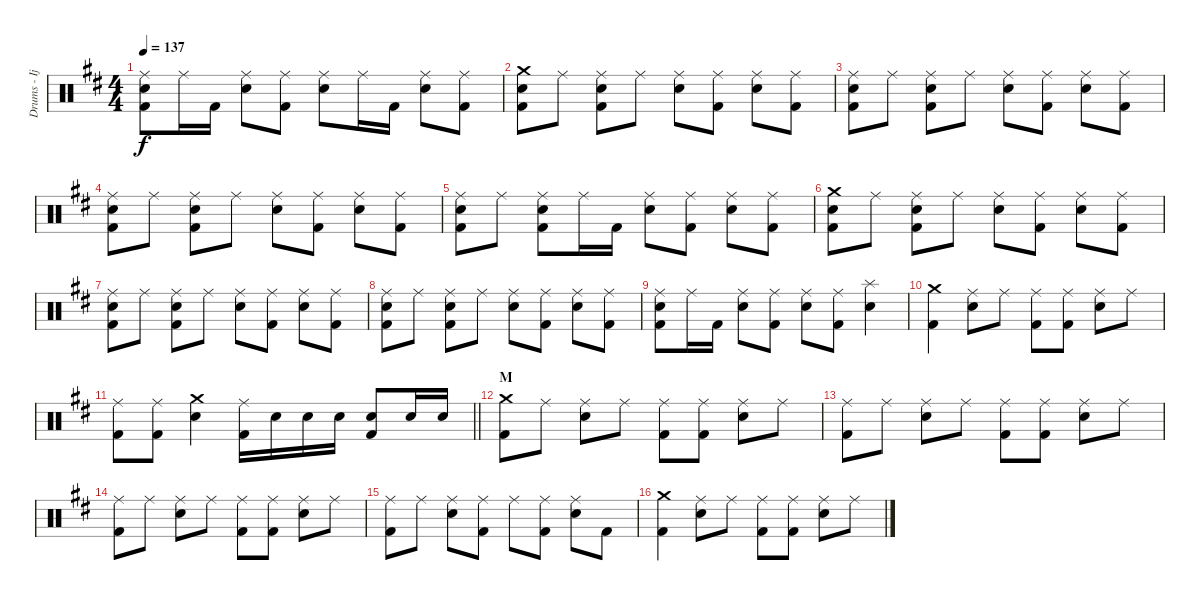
\track ("Drums - Ijichi" "Drums - Ij") {instrument percussion}
\staff {score}
\articulation defaults
\ts (4 4)
\tempo 137
\clef neutral
\ks d
("Ride (middle)" "Electric Snare (hit)" "Kick (hit) 2").8{dy f} "Ride (middle)".16 "Kick (hit) 2".16 ("Ride (middle)" "Electric Snare (hit)").8 ("Ride (middle)" "Kick (hit) 2").8 ("Ride (middle)" "Electric Snare (hit)").8 "Ride (middle)".16 "Kick (hit) 2".16 ("Ride (middle)" "Electric Snare (hit)").8 ("Ride (middle)" "Kick (hit) 2").8 |
("Crash medium (hit)" "Electric Snare (hit)" "Kick (hit) 2").8 "Ride (middle)".8 ("Ride (middle)" "Electric Snare (hit)" "Kick (hit) 2").8 "Ride (middle)".8 ("Ride (middle)" "Electric Snare (hit)").8 ("Ride (middle)" "Kick (hit) 2").8 ("Ride (middle)" "Electric Snare (hit)").8 ("Ride (middle)" "Kick (hit) 2").8 |
("Ride (middle)" "Electric Snare (hit)" "Kick (hit) 2").8 "Ride (middle)".8 ("Ride (middle)" "Electric Snare (hit)" "Kick (hit) 2").8 "Ride (middle)".8 ("Ride (middle)" "Electric Snare (hit)").8 ("Ride (middle)" "Kick (hit) 2").8 ("Ride (middle)" "Electric Snare (hit)").8 ("Ride (middle)" "Kick (hit) 2").8 |
("Ride (middle)" "Electric Snare (hit)" "Kick (hit) 2").8 "Ride (middle)".8 ("Ride (middle)" "Electric Snare (hit)" "Kick (hit) 2").8 "Ride (middle)".8 ("Ride (middle)" "Electric Snare (hit)").8 ("Ride (middle)" "Kick (hit) 2").8 ("Ride (middle)" "Electric Snare (hit)").8 ("Ride (middle)" "Kick (hit) 2").8 |
("Ride (middle)" "Electric Snare (hit)" "Kick (hit) 2").8 "Ride (middle)".8 ("Ride (middle)" "Electric Snare (hit)" "Kick (hit) 2").8 "Ride (middle)".16 "Kick (hit) 2".16 ("Ride (middle)" "Electric Snare (hit)").8 ("Ride (middle)" "Kick (hit) 2").8 ("Ride (middle)" "Electric Snare (hit)").8 ("Ride (middle)" "Kick (hit) 2").8 |
("Crash medium (hit)" "Electric Snare (hit)" "Kick (hit) 2").8 "Ride (middle)".8 ("Ride (middle)" "Electric Snare (hit)" "Kick (hit) 2").8 "Ride (middle)".8 ("Ride (middle)" "Electric Snare (hit)").8 ("Ride (middle)" "Kick (hit) 2").8 ("Ride (middle)" "Electric Snare (hit)").8 ("Ride (middle)" "Kick (hit) 2").8 |
("Ride (middle)" "Electric Snare (hit)" "Kick (hit) 2").8 "Ride (middle)".8 ("Ride (middle)" "Electric Snare (hit)" "Kick (hit) 2").8 "Ride (middle)".8 ("Ride (middle)" "Electric Snare (hit)").8 ("Ride (middle)" "Kick (hit) 2").8 ("Ride (middle)" "Electric Snare (hit)").8 ("Ride (middle)" "Kick (hit) 2").8 |
("Ride (middle)" "Electric Snare (hit)" "Kick (hit) 2").8 "Ride (middle)".8 ("Ride (middle)" "Electric Snare (hit)" "Kick (hit) 2").8 "Ride (middle)".8 ("Ride (middle)" "Electric Snare (hit)").8 ("Ride (middle)" "Kick (hit) 2").8 ("Ride (middle)" "Electric Snare (hit)").8 ("Ride (middle)" "Kick (hit) 2").8 |
("Ride (middle)" "Electric Snare (hit)" "Kick (hit) 2").8 "Ride (middle)".16 "Kick (hit) 2".16 ("Ride (middle)" "Electric Snare (hit)").8 ("Ride (middle)" "Kick (hit) 2").8 ("Ride (middle)" "Electric Snare (hit)").8 ("Ride (middle)" "Kick (hit) 2").8 ("Splash (hit)" "Electric Snare (hit)").4 |
("Crash medium (hit)" "Kick (hit) 2").4 ("Ride (middle)" "Electric Snare (hit)").8 "Ride (middle)".8 ("Ride (middle)" "Kick (hit) 2").8 ("Ride (middle)" "Kick (hit) 2").8 ("Ride (middle)" "Electric Snare (hit)").8 "Ride (middle)".8 |
\barLineRight lightlight
("Ride (middle)" "Kick (hit) 2").8 ("Ride (middle)" "Kick (hit) 2").8 ("Crash medium (hit)" "Electric Snare (hit)").4 ("Ride (middle)" "Kick (hit) 2").16 "Electric Snare (hit)".16 "Electric Snare (hit)".16 "Electric Snare (hit)".16 ("Electric Snare (hit)" "Kick (hit) 2").8 "Electric Snare (hit)".16 "Electric Snare (hit)".16 |
\section ("" "M")
("Crash medium (hit)" "Kick (hit) 2").8 "Ride (middle)".8 ("Ride (middle)" "Electric Snare (hit)").8 "Ride (middle)".8 ("Ride (middle)" "Kick (hit) 2").8 ("Ride (middle)" "Kick (hit) 2").8 ("Ride (middle)" "Electric Snare (hit)").8 "Ride (middle)".8 |
("Ride (middle)" "Kick (hit) 2").8 "Ride (middle)".8 ("Ride (middle)" "Electric Snare (hit)").8 "Ride (middle)".8 ("Ride (middle)" "Kick (hit) 2").8 ("Ride (middle)" "Kick (hit) 2").8 ("Ride (middle)" "Electric Snare (hit)").8 "Ride (middle)".8 |
("Ride (middle)" "Kick (hit) 2").8 "Ride (middle)".8 ("Ride (middle)" "Electric Snare (hit)").8 "Ride (middle)".8 ("Ride (middle)" "Kick (hit) 2").8 ("Ride (middle)" "Kick (hit) 2").8 ("Ride (middle)" "Electric Snare (hit)").8 "Ride (middle)".8 |
("Ride (middle)" "Kick (hit) 2").8 "Ride (middle)".8 ("Ride (middle)" "Electric Snare (hit)").8 ("Ride (middle)" "Kick (hit) 2").8 "Ride (middle)".8 ("Ride (middle)" "Kick (hit) 2").8 ("Ride (middle)" "Electric Snare (hit)").8 "Kick (hit) 2".8 |
("Crash medium (hit)" "Kick (hit) 2").4 ("Ride (middle)" "Electric Snare (hit)").8 "Ride (middle)".8 ("Ride (middle)" "Kick (hit) 2").8 ("Ride (middle)" "Kick (hit) 2").8 ("Ride (middle)" "Electric Snare (hit)").8 "Ride (middle)".8
